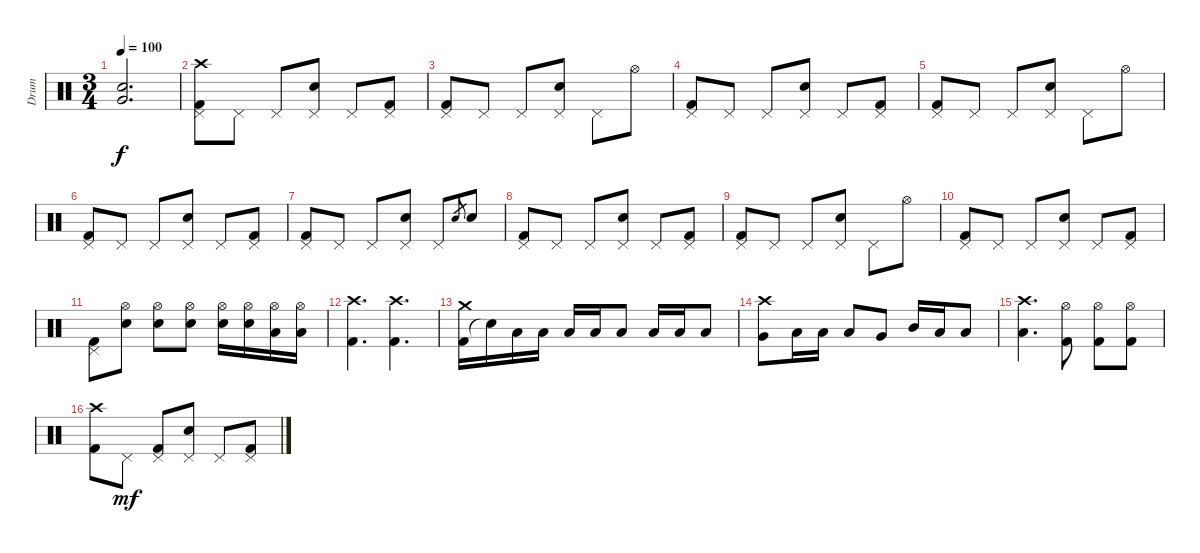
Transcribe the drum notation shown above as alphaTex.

\track ("Drum" "Drum") {instrument percussion}
\staff {score}
\articulation defaults
\ts (3 4)
\tempo 100
\clef neutral
\ks c
("Snare (hit) 2" "Very Low Tom (hit)").2{d bd 30 dy f} |
("Kick (hit) 2" "Pedal Hi-Hat (hit)" "Crash high (hit)").8 "Pedal Hi-Hat (hit)".8 "Pedal Hi-Hat (hit)".8 ("Snare (hit) 2" "Pedal Hi-Hat (hit)").8 "Pedal Hi-Hat (hit)".8 ("Kick (hit) 2" "Pedal Hi-Hat (hit)").8 |
("Kick (hit) 2" "Pedal Hi-Hat (hit)").8 "Pedal Hi-Hat (hit)".8 "Pedal Hi-Hat (hit)".8 ("Snare (hit) 2" "Pedal Hi-Hat (hit)").8 "Pedal Hi-Hat (hit)".8 "Hi-Hat (open)".8 |
("Kick (hit) 2" "Pedal Hi-Hat (hit)").8 "Pedal Hi-Hat (hit)".8 "Pedal Hi-Hat (hit)".8 ("Snare (hit) 2" "Pedal Hi-Hat (hit)").8 "Pedal Hi-Hat (hit)".8 ("Kick (hit) 2" "Pedal Hi-Hat (hit)").8 |
("Kick (hit) 2" "Pedal Hi-Hat (hit)").8 "Pedal Hi-Hat (hit)".8 "Pedal Hi-Hat (hit)".8 ("Snare (hit) 2" "Pedal Hi-Hat (hit)").8 "Pedal Hi-Hat (hit)".8 "Hi-Hat (open)".8 |
("Kick (hit) 2" "Pedal Hi-Hat (hit)").8 "Pedal Hi-Hat (hit)".8 "Pedal Hi-Hat (hit)".8 ("Snare (hit) 2" "Pedal Hi-Hat (hit)").8 "Pedal Hi-Hat (hit)".8 ("Kick (hit) 2" "Pedal Hi-Hat (hit)").8 |
("Kick (hit) 2" "Pedal Hi-Hat (hit)").8 "Pedal Hi-Hat (hit)".8 "Pedal Hi-Hat (hit)".8 ("Snare (hit) 2" "Pedal Hi-Hat (hit)").8 "Pedal Hi-Hat (hit)".8 "Snare (hit) 2".8{gr} "Snare (hit) 2".8 |
("Kick (hit) 2" "Pedal Hi-Hat (hit)").8 "Pedal Hi-Hat (hit)".8 "Pedal Hi-Hat (hit)".8 ("Snare (hit) 2" "Pedal Hi-Hat (hit)").8 "Pedal Hi-Hat (hit)".8 ("Kick (hit) 2" "Pedal Hi-Hat (hit)").8 |
("Kick (hit) 2" "Pedal Hi-Hat (hit)").8 "Pedal Hi-Hat (hit)".8 "Pedal Hi-Hat (hit)".8 ("Snare (hit) 2" "Pedal Hi-Hat (hit)").8 "Pedal Hi-Hat (hit)".8 "Hi-Hat (open)".8 |
("Kick (hit) 2" "Pedal Hi-Hat (hit)").8 "Pedal Hi-Hat (hit)".8 "Pedal Hi-Hat (hit)".8 ("Snare (hit) 2" "Pedal Hi-Hat (hit)").8 "Pedal Hi-Hat (hit)".8 ("Kick (hit) 2" "Pedal Hi-Hat (hit)").8 |
("Kick (hit) 2" "Pedal Hi-Hat (hit)").8 ("Snare (hit) 2" "Hi-Hat (open)").8 ("Snare (hit) 2" "Hi-Hat (open)").8 ("Snare (hit) 2" "Hi-Hat (open)").8 ("Snare (hit) 2" "Hi-Hat (open)").16 ("Snare (hit) 2" "Hi-Hat (open)").16 ("Low Tom (hit)" "Hi-Hat (open)").16 ("Low Tom (hit)" "Hi-Hat (open)").16 |
("Kick (hit) 2" "Crash high (hit)").4{d} ("Kick (hit) 2" "Crash high (hit)").4{d} |
("Kick (hit) 2" "Crash medium (hit)").16 "Snare (hit)"{t}.16 "Low Tom (hit)".16 "Low Tom (hit)".16 "Low Tom (hit)".16 "Low Tom (hit)".16 "Low Tom (hit)".8 "Low Tom (hit)".16 "Low Tom (hit)".16 "Low Tom (hit)".8 |
("Very Low Tom (hit)" "Crash high (hit)").8 "Low Tom (hit)".16 "Low Tom (hit)".16 "Low Tom (hit)".8 "Very Low Tom (hit)".8 "Mid Tom (hit)".16 "Low Tom (hit)".16 "Low Tom (hit)".8 |
("Low Tom (hit)" "Crash high (hit)").4{d} ("Kick (hit) 2" "Hi-Hat (open)").8 ("Kick (hit) 2" "Hi-Hat (open)").8 ("Kick (hit) 2" "Hi-Hat (open)").8 |
("Kick (hit) 2" "Crash high (hit)").8 "Pedal Hi-Hat (hit)".8{dy mf} ("Kick (hit) 2" "Pedal Hi-Hat (hit)").8 ("Snare (hit) 2" "Pedal Hi-Hat (hit)").8 "Pedal Hi-Hat (hit)".8 ("Kick (hit) 2" "Pedal Hi-Hat (hit)").8
